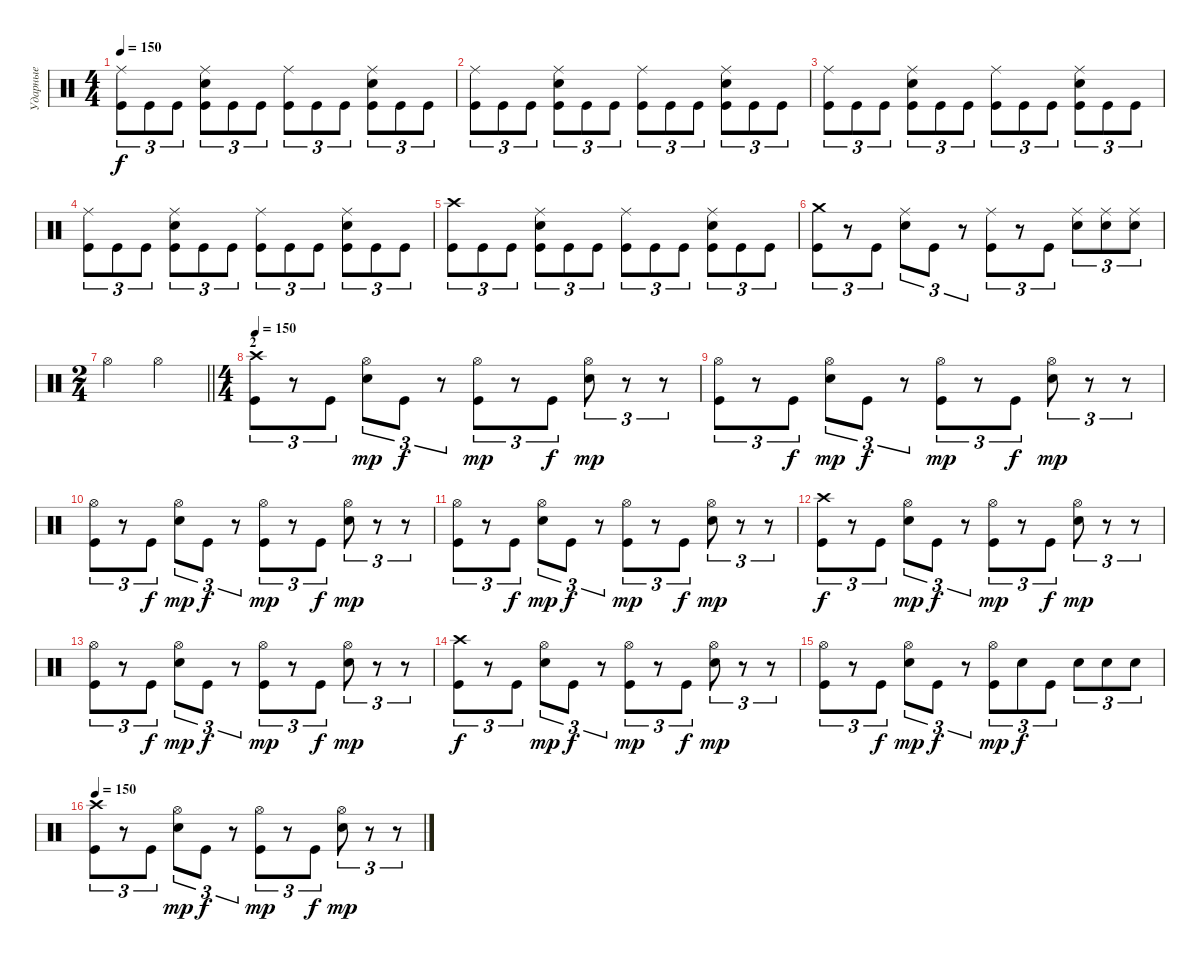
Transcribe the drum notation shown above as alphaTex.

\track ("Ударные" "Ударные") {instrument percussion}
\staff {score}
\articulation defaults
\ts (4 4)
\tempo 150
\clef neutral
\ks c
("Ride (middle)" "Kick (hit)").8{tu (3 2) dy f} "Kick (hit)".8{tu (3 2)} "Kick (hit)".8{tu (3 2)} ("Ride (middle)" "Snare (hit) 2" "Kick (hit)").8{tu (3 2)} "Kick (hit)".8{tu (3 2)} "Kick (hit)".8{tu (3 2)} ("Ride (middle)" "Kick (hit)").8{tu (3 2)} "Kick (hit)".8{tu (3 2)} "Kick (hit)".8{tu (3 2)} ("Ride (middle)" "Snare (hit) 2" "Kick (hit)").8{tu (3 2)} "Kick (hit)".8{tu (3 2)} "Kick (hit)".8{tu (3 2)} |
("Ride (middle)" "Kick (hit)").8{tu (3 2)} "Kick (hit)".8{tu (3 2)} "Kick (hit)".8{tu (3 2)} ("Ride (middle)" "Snare (hit) 2" "Kick (hit)").8{tu (3 2)} "Kick (hit)".8{tu (3 2)} "Kick (hit)".8{tu (3 2)} ("Ride (middle)" "Kick (hit)").8{tu (3 2)} "Kick (hit)".8{tu (3 2)} "Kick (hit)".8{tu (3 2)} ("Ride (middle)" "Snare (hit) 2" "Kick (hit)").8{tu (3 2)} "Kick (hit)".8{tu (3 2)} "Kick (hit)".8{tu (3 2)} |
("Ride (middle)" "Kick (hit)").8{tu (3 2)} "Kick (hit)".8{tu (3 2)} "Kick (hit)".8{tu (3 2)} ("Ride (middle)" "Snare (hit) 2" "Kick (hit)").8{tu (3 2)} "Kick (hit)".8{tu (3 2)} "Kick (hit)".8{tu (3 2)} ("Ride (middle)" "Kick (hit)").8{tu (3 2)} "Kick (hit)".8{tu (3 2)} "Kick (hit)".8{tu (3 2)} ("Ride (middle)" "Snare (hit) 2" "Kick (hit)").8{tu (3 2)} "Kick (hit)".8{tu (3 2)} "Kick (hit)".8{tu (3 2)} |
("Ride (middle)" "Kick (hit)").8{tu (3 2)} "Kick (hit)".8{tu (3 2)} "Kick (hit)".8{tu (3 2)} ("Ride (middle)" "Snare (hit) 2" "Kick (hit)").8{tu (3 2)} "Kick (hit)".8{tu (3 2)} "Kick (hit)".8{tu (3 2)} ("Ride (middle)" "Kick (hit)").8{tu (3 2)} "Kick (hit)".8{tu (3 2)} "Kick (hit)".8{tu (3 2)} ("Ride (middle)" "Snare (hit) 2" "Kick (hit)").8{tu (3 2)} "Kick (hit)".8{tu (3 2)} "Kick (hit)".8{tu (3 2)} |
("Crash high (hit)" "Kick (hit)").8{tu (3 2)} "Kick (hit)".8{tu (3 2)} "Kick (hit)".8{tu (3 2)} ("Ride (middle)" "Snare (hit) 2" "Kick (hit)").8{tu (3 2)} "Kick (hit)".8{tu (3 2)} "Kick (hit)".8{tu (3 2)} ("Ride (middle)" "Kick (hit)").8{tu (3 2)} "Kick (hit)".8{tu (3 2)} "Kick (hit)".8{tu (3 2)} ("Ride (middle)" "Snare (hit) 2" "Kick (hit)").8{tu (3 2)} "Kick (hit)".8{tu (3 2)} "Kick (hit)".8{tu (3 2)} |
("Crash medium (hit)" "Kick (hit)").8{tu (3 2)} r.8{tu (3 2)} "Kick (hit)".8{tu (3 2)} ("Ride (middle)" "Snare (hit) 2").8{tu (3 2)} "Kick (hit)".8{tu (3 2)} r.8{tu (3 2)} ("Ride (middle)" "Kick (hit)").8{tu (3 2)} r.8{tu (3 2)} "Kick (hit)".8{tu (3 2)} ("Ride (middle)" "Snare (hit) 2").8{tu (3 2)} ("Ride (middle)" "Snare (hit) 2").8{tu (3 2)} ("Ride (middle)" "Snare (hit) 2").8{tu (3 2)} |
\ts (2 4)
\barLineRight lightlight "Hi-Hat (open)".4 "Hi-Hat (open)".4
|
\ts (4 4)
\section ("" "2")
\tempo 150
("Crash high (hit)" "Kick (hit)").8{tu (3 2)} r.8{tu (3 2)} "Kick (hit)".8{tu (3 2)} ("Hi-Hat (open)" "Snare (hit) 2").8{tu (3 2) dy mp} "Kick (hit)".8{tu (3 2) dy f} r.8{tu (3 2)} ("Hi-Hat (open)" "Kick (hit)").8{tu (3 2) dy mp} r.8{tu (3 2)} "Kick (hit)".8{tu (3 2) dy f} ("Hi-Hat (open)" "Snare (hit) 2").8{tu (3 2) dy mp} r.8{tu (3 2)} r.8{tu (3 2)} |
("Hi-Hat (open)" "Kick (hit)").8{tu (3 2)} r.8{tu (3 2)} "Kick (hit)".8{tu (3 2) dy f} ("Hi-Hat (open)" "Snare (hit) 2").8{tu (3 2) dy mp} "Kick (hit)".8{tu (3 2) dy f} r.8{tu (3 2)} ("Hi-Hat (open)" "Kick (hit)").8{tu (3 2) dy mp} r.8{tu (3 2)} "Kick (hit)".8{tu (3 2) dy f} ("Hi-Hat (open)" "Snare (hit) 2").8{tu (3 2) dy mp} r.8{tu (3 2)} r.8{tu (3 2)} |
("Hi-Hat (open)" "Kick (hit)").8{tu (3 2)} r.8{tu (3 2)} "Kick (hit)".8{tu (3 2) dy f} ("Hi-Hat (open)" "Snare (hit) 2").8{tu (3 2) dy mp} "Kick (hit)".8{tu (3 2) dy f} r.8{tu (3 2)} ("Hi-Hat (open)" "Kick (hit)").8{tu (3 2) dy mp} r.8{tu (3 2)} "Kick (hit)".8{tu (3 2) dy f} ("Hi-Hat (open)" "Snare (hit) 2").8{tu (3 2) dy mp} r.8{tu (3 2)} r.8{tu (3 2)} |
("Hi-Hat (open)" "Kick (hit)").8{tu (3 2)} r.8{tu (3 2)} "Kick (hit)".8{tu (3 2) dy f} ("Hi-Hat (open)" "Snare (hit) 2").8{tu (3 2) dy mp} "Kick (hit)".8{tu (3 2) dy f} r.8{tu (3 2)} ("Hi-Hat (open)" "Kick (hit)").8{tu (3 2) dy mp} r.8{tu (3 2)} "Kick (hit)".8{tu (3 2) dy f} ("Hi-Hat (open)" "Snare (hit) 2").8{tu (3 2) dy mp} r.8{tu (3 2)} r.8{tu (3 2)} |
("Crash high (hit)" "Kick (hit)").8{tu (3 2) dy f} r.8{tu (3 2)} "Kick (hit)".8{tu (3 2)} ("Hi-Hat (open)" "Snare (hit) 2").8{tu (3 2) dy mp} "Kick (hit)".8{tu (3 2) dy f} r.8{tu (3 2)} ("Hi-Hat (open)" "Kick (hit)").8{tu (3 2) dy mp} r.8{tu (3 2)} "Kick (hit)".8{tu (3 2) dy f} ("Hi-Hat (open)" "Snare (hit) 2").8{tu (3 2) dy mp} r.8{tu (3 2)} r.8{tu (3 2)} |
("Hi-Hat (open)" "Kick (hit)").8{tu (3 2)} r.8{tu (3 2)} "Kick (hit)".8{tu (3 2) dy f} ("Hi-Hat (open)" "Snare (hit) 2").8{tu (3 2) dy mp} "Kick (hit)".8{tu (3 2) dy f} r.8{tu (3 2)} ("Hi-Hat (open)" "Kick (hit)").8{tu (3 2) dy mp} r.8{tu (3 2)} "Kick (hit)".8{tu (3 2) dy f} ("Hi-Hat (open)" "Snare (hit) 2").8{tu (3 2) dy mp} r.8{tu (3 2)} r.8{tu (3 2)} |
("Crash high (hit)" "Kick (hit)").8{tu (3 2) dy f} r.8{tu (3 2)} "Kick (hit)".8{tu (3 2)} ("Hi-Hat (open)" "Snare (hit) 2").8{tu (3 2) dy mp} "Kick (hit)".8{tu (3 2) dy f} r.8{tu (3 2)} ("Hi-Hat (open)" "Kick (hit)").8{tu (3 2) dy mp} r.8{tu (3 2)} "Kick (hit)".8{tu (3 2) dy f} ("Hi-Hat (open)" "Snare (hit) 2").8{tu (3 2) dy mp} r.8{tu (3 2)} r.8{tu (3 2)} |
("Hi-Hat (open)" "Kick (hit)").8{tu (3 2)} r.8{tu (3 2)} "Kick (hit)".8{tu (3 2) dy f} ("Hi-Hat (open)" "Snare (hit) 2").8{tu (3 2) dy mp} "Kick (hit)".8{tu (3 2) dy f} r.8{tu (3 2)} ("Hi-Hat (open)" "Kick (hit)").8{tu (3 2) dy mp} "Snare (hit) 2".8{tu (3 2) dy f} "Kick (hit)".8{tu (3 2)} "Snare (hit) 2".8{tu (3 2)} "Snare (hit) 2".8{tu (3 2)} "Snare (hit) 2".8{tu (3 2)} |
\tempo 150
("Crash high (hit)" "Kick (hit)").8{tu (3 2)} r.8{tu (3 2)} "Kick (hit)".8{tu (3 2)} ("Hi-Hat (open)" "Snare (hit) 2").8{tu (3 2) dy mp} "Kick (hit)".8{tu (3 2) dy f} r.8{tu (3 2)} ("Hi-Hat (open)" "Kick (hit)").8{tu (3 2) dy mp} r.8{tu (3 2)} "Kick (hit)".8{tu (3 2) dy f} ("Hi-Hat (open)" "Snare (hit) 2").8{tu (3 2) dy mp} r.8{tu (3 2)} r.8{tu (3 2)}
